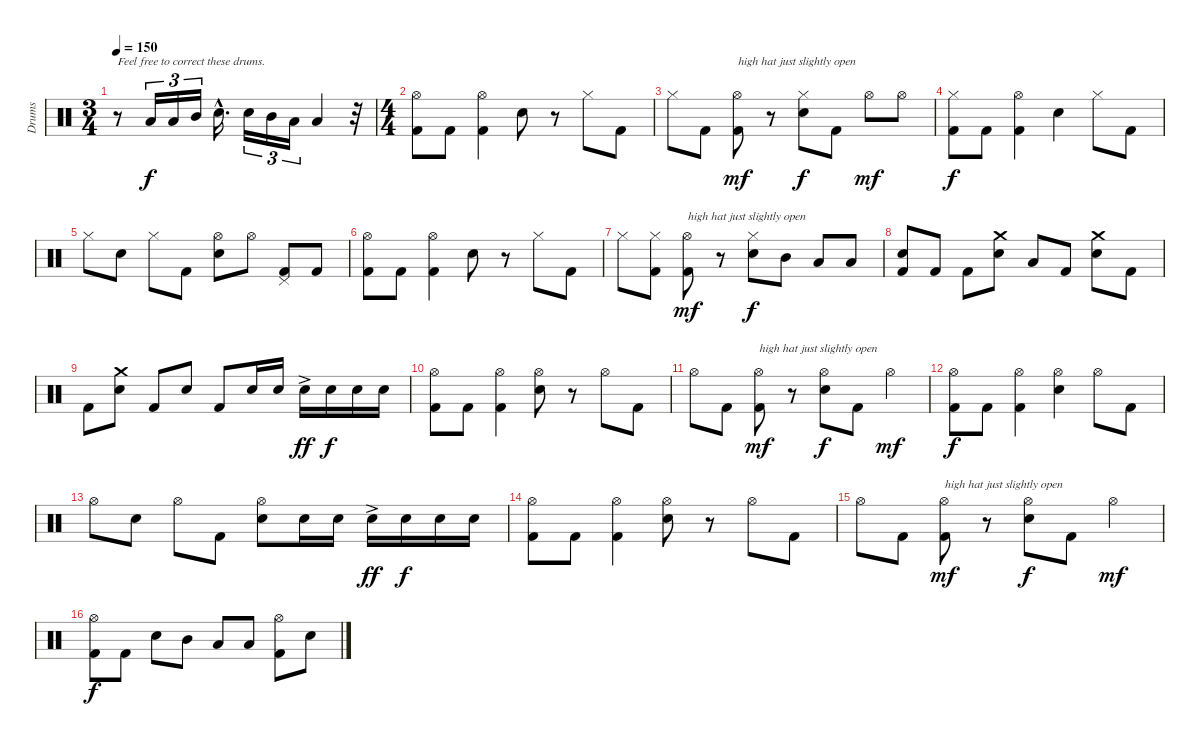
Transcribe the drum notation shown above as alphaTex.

\track ("Drums" "Drums") {instrument percussion}
\staff {score}
\articulation defaults
\ts (3 4)
\tempo 150
\clef neutral
\ks c
r.8{txt "Feel free to correct these drums." dy f} "Low Floor Tom (hit)".16{tu (3 2)} "Low Tom (hit)".16{tu (3 2)} "Mid Tom (hit)".16{tu (3 2)} "Snare (hit) 2"{hac}.16{d} "Snare (hit) 2".16{tu (3 2)} "Mid Tom (hit)".16{tu (3 2)} "Low Tom (hit)".16{tu (3 2)} "Low Floor Tom (hit)".4 r.32 |
\ts (4 4)
("Hi-Hat (open)" "Kick (hit) 2").8 "Kick (hit) 2".8 ("Hi-Hat (open)" "Kick (hit) 2").4 "Snare (hit) 2".8 r.8 "Hi-Hat (closed)".8 "Kick (hit) 2".8 |
"Hi-Hat (closed)".8 "Kick (hit) 2".8 ("Hi-Hat (open)" "Kick (hit) 2").8{txt "high hat just slightly open" dy mf} r.8 ("Hi-Hat (closed)" "Snare (hit) 2").8{dy f} "Kick (hit) 2".8 "Hi-Hat (open)".8{dy mf} "Hi-Hat (open)".8 |
("Hi-Hat (closed)" "Kick (hit) 2").8{dy f} "Kick (hit) 2".8 ("Hi-Hat (open)" "Kick (hit) 2").4 "Snare (hit) 2".4 "Hi-Hat (closed)".8 "Kick (hit) 2".8 |
"Hi-Hat (closed)".8 "Snare (hit) 2".8 "Hi-Hat (closed)".8 "Kick (hit) 2".8 ("Hi-Hat (open)" "Snare (hit) 2").8 "Hi-Hat (open)".8 ("Pedal Hi-Hat (hit)" "Kick (hit) 2").8 "Kick (hit) 2".8 |
("Hi-Hat (open)" "Kick (hit) 2").8 "Kick (hit) 2".8 ("Hi-Hat (open)" "Kick (hit) 2").4 "Snare (hit) 2".8 r.8 "Hi-Hat (closed)".8 "Kick (hit) 2".8 |
"Hi-Hat (closed)".8 ("Hi-Hat (closed)" "Kick (hit) 2").8 ("Hi-Hat (open)" "Kick (hit) 2").8{txt "high hat just slightly open" dy mf} r.8 ("Hi-Hat (closed)" "Snare (hit) 2").8{dy f} "Mid Tom (hit)".8 "Low Tom (hit)".8 "Low Floor Tom (hit)".8 |
("Snare (hit) 2" "Kick (hit) 2").8 "Kick (hit) 2".8 "Kick (hit) 2".8 ("Crash medium (hit)" "Snare (hit) 2").8 "Low Floor Tom (hit)".8 "Kick (hit) 2".8 ("Crash medium (hit)" "Snare (hit) 2").8 "Kick (hit) 2".8 |
"Kick (hit) 2".8 ("Crash medium (hit)" "Snare (hit) 2").8 "Kick (hit) 2".8 "Snare (hit) 2".8 "Kick (hit) 2".8 "Snare (hit) 2".16 "Snare (hit) 2".16 "Snare (hit) 2"{ac}.16{dy ff} "Snare (hit) 2".16{dy f} "Snare (hit) 2".16 "Snare (hit) 2".16 |
("Hi-Hat (open)" "Kick (hit) 2").8 "Kick (hit) 2".8 ("Hi-Hat (open)" "Kick (hit) 2").4 ("Hi-Hat (open)" "Snare (hit) 2").8 r.8 "Hi-Hat (open)".8 "Kick (hit) 2".8 |
"Hi-Hat (open)".8 "Kick (hit) 2".8 ("Hi-Hat (open)" "Kick (hit) 2").8{txt "high hat just slightly open" dy mf} r.8 ("Hi-Hat (open)" "Snare (hit) 2").8{dy f} "Kick (hit) 2".8 "Hi-Hat (open)".4{dy mf} |
("Hi-Hat (open)" "Kick (hit) 2").8{dy f} "Kick (hit) 2".8 ("Hi-Hat (open)" "Kick (hit) 2").4 ("Hi-Hat (open)" "Snare (hit) 2").4 "Hi-Hat (open)".8 "Kick (hit) 2".8 |
"Hi-Hat (open)".8 "Snare (hit) 2".8 "Hi-Hat (open)".8 "Kick (hit) 2".8 ("Hi-Hat (open)" "Snare (hit) 2").8 "Snare (hit) 2".16 "Snare (hit) 2".16 "Snare (hit) 2"{ac}.16{dy ff} "Snare (hit) 2".16{dy f} "Snare (hit) 2".16 "Snare (hit) 2".16 |
("Hi-Hat (open)" "Kick (hit) 2").8 "Kick (hit) 2".8 ("Hi-Hat (open)" "Kick (hit) 2").4 ("Hi-Hat (open)" "Snare (hit) 2").8 r.8 "Hi-Hat (open)".8 "Kick (hit) 2".8 |
"Hi-Hat (open)".8 "Kick (hit) 2".8 ("Hi-Hat (open)" "Kick (hit) 2").8{txt "high hat just slightly open" dy mf} r.8 ("Hi-Hat (open)" "Snare (hit) 2").8{dy f} "Kick (hit) 2".8 "Hi-Hat (open)".4{dy mf} |
("Hi-Hat (open)" "Kick (hit) 2").8{dy f} "Kick (hit) 2".8 "Snare (hit) 2".8 "Mid Tom (hit)".8 "Low Tom (hit)".8 "Low Floor Tom (hit)".8 ("Hi-Hat (open)" "Kick (hit) 2").8 "Snare (hit) 2".8
